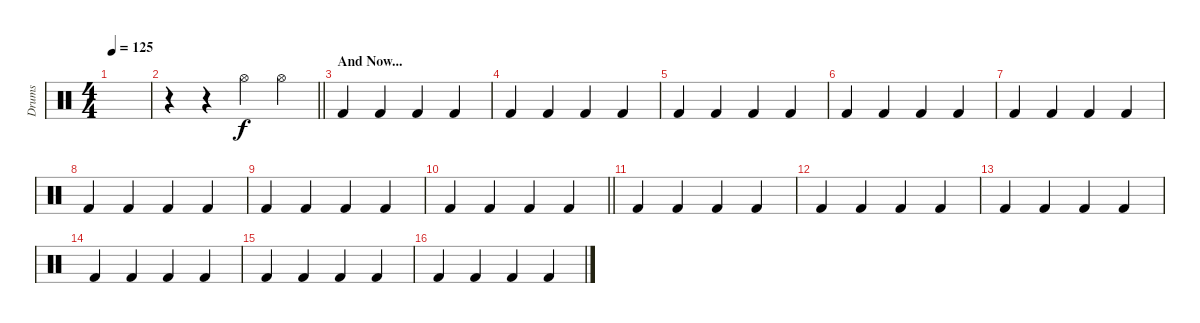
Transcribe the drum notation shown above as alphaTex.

\track ("Drums" "Drums") {instrument percussion}
\staff {score}
\articulation defaults
\ts (4 4)
\tempo 125
\clef neutral
\ks c
|
\barLineRight lightlight
r.4 r.4 "Hi-Hat (open)".4 "Hi-Hat (open)".4 |
\section ("" "And Now...")
"Kick (hit) 2".4 "Kick (hit) 2".4 "Kick (hit) 2".4 "Kick (hit) 2".4 |
"Kick (hit) 2".4 "Kick (hit) 2".4 "Kick (hit) 2".4 "Kick (hit) 2".4 |
"Kick (hit) 2".4 "Kick (hit) 2".4 "Kick (hit) 2".4 "Kick (hit) 2".4 |
"Kick (hit) 2".4 "Kick (hit) 2".4 "Kick (hit) 2".4 "Kick (hit) 2".4 |
"Kick (hit) 2".4 "Kick (hit) 2".4 "Kick (hit) 2".4 "Kick (hit) 2".4 |
"Kick (hit) 2".4 "Kick (hit) 2".4 "Kick (hit) 2".4 "Kick (hit) 2".4 |
"Kick (hit) 2".4 "Kick (hit) 2".4 "Kick (hit) 2".4 "Kick (hit) 2".4 |
\barLineRight lightlight "Kick (hit) 2".4 "Kick (hit) 2".4 "Kick (hit) 2".4 "Kick (hit) 2".4
|
\section ("" "")
"Kick (hit) 2".4 "Kick (hit) 2".4 "Kick (hit) 2".4 "Kick (hit) 2".4 |
"Kick (hit) 2".4 "Kick (hit) 2".4 "Kick (hit) 2".4 "Kick (hit) 2".4 |
"Kick (hit) 2".4 "Kick (hit) 2".4 "Kick (hit) 2".4 "Kick (hit) 2".4 |
"Kick (hit) 2".4 "Kick (hit) 2".4 "Kick (hit) 2".4 "Kick (hit) 2".4 |
"Kick (hit) 2".4 "Kick (hit) 2".4 "Kick (hit) 2".4 "Kick (hit) 2".4 |
"Kick (hit) 2".4 "Kick (hit) 2".4 "Kick (hit) 2".4 "Kick (hit) 2".4
